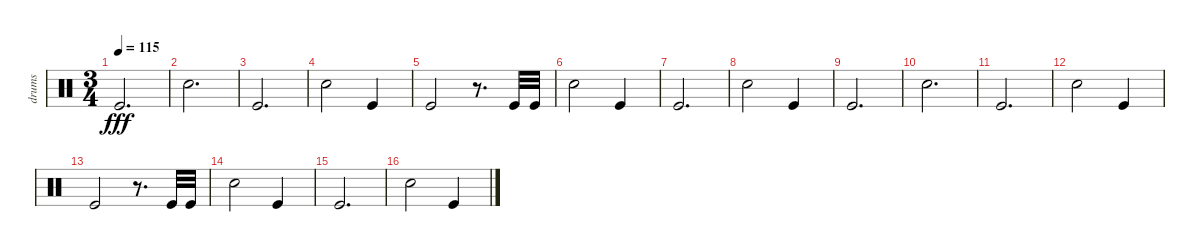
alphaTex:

\track ("drums" "drums") {instrument percussion}
\staff {score}
\articulation defaults
\ts (3 4)
\tempo 115
\clef neutral
\ks c "Kick (hit)".2{d dy fff}
|
"Electric Snare (hit)".2{d} |
"Kick (hit)".2{d} |
"Electric Snare (hit)".2 "Kick (hit)".4 |
"Kick (hit)".2 r.8{d} "Kick (hit)".32 "Kick (hit)".32 |
"Electric Snare (hit)".2 "Kick (hit)".4 |
"Kick (hit)".2{d} |
"Electric Snare (hit)".2 "Kick (hit)".4 |
"Kick (hit)".2{d} |
"Electric Snare (hit)".2{d} |
"Kick (hit)".2{d} |
"Electric Snare (hit)".2 "Kick (hit)".4 |
"Kick (hit)".2 r.8{d} "Kick (hit)".32 "Kick (hit)".32 |
"Electric Snare (hit)".2 "Kick (hit)".4 |
"Kick (hit)".2{d} |
"Electric Snare (hit)".2 "Kick (hit)".4
